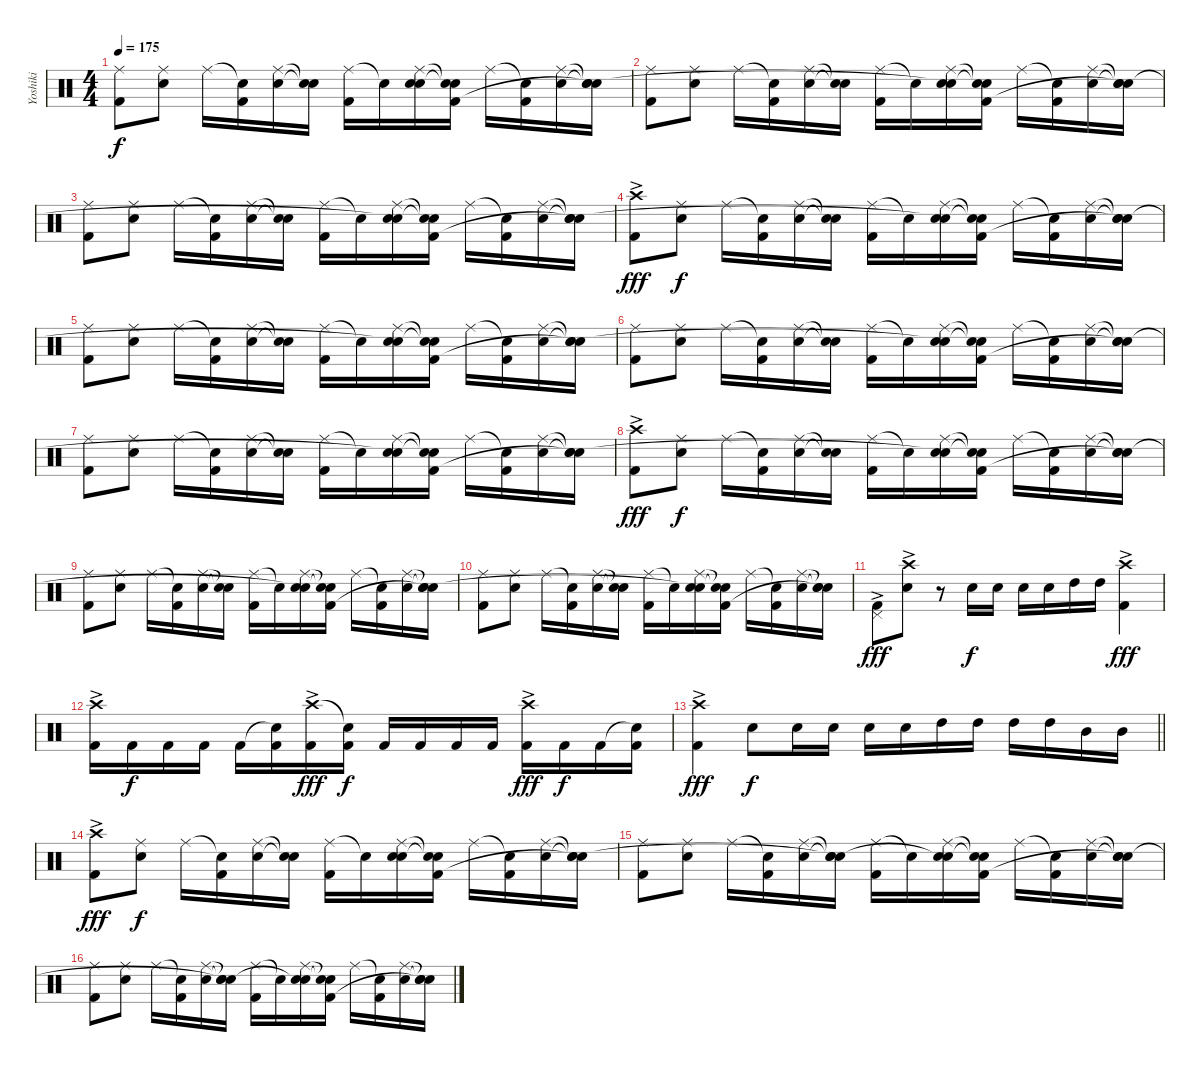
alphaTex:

\track ("Yoshiki" "Yoshiki") {instrument percussion}
\staff {score}
\articulation defaults
\ts (4 4)
\tempo 175
\clef neutral
\ks c
("Ride (middle)" "Kick (hit) 2").8{dy f} ("Ride (middle)" "Snare (hit) 2").8 "Ride (middle)".16 ("Snare (hit)"{t} "Kick (hit) 2").16 ("Ride (middle)" "Snare (hit) 2").16 ("Snare (hit)"{t} "Snare (hit)"{t}).16 ("Ride (middle)" "Kick (hit) 2").16 "Snare (hit)"{t}.16 ("Ride (middle)" "Snare (hit) 2" "Snare (hit)"{t}).16 ("Snare (hit)"{t} "Snare (hit)"{t} "Kick (hit) 2").16 "Ride (middle)".16 ("Snare (hit)"{t} "Kick (hit) 2").16 ("Ride (middle)" "Snare (hit) 2").16 ("Snare (hit)"{t} "Snare (hit)"{t} "Snare (hit)"{t}).16 |
("Ride (middle)" "Kick (hit) 2").8 ("Ride (middle)" "Snare (hit) 2").8 "Ride (middle)".16 ("Snare (hit)"{t} "Kick (hit) 2").16 ("Ride (middle)" "Snare (hit) 2").16 ("Snare (hit)"{t} "Snare (hit)"{t}).16 ("Ride (middle)" "Kick (hit) 2").16 "Snare (hit)"{t}.16 ("Ride (middle)" "Snare (hit) 2" "Snare (hit)"{t}).16 ("Snare (hit)"{t} "Snare (hit)"{t} "Kick (hit) 2").16 "Ride (middle)".16 ("Snare (hit)"{t} "Kick (hit) 2").16 ("Ride (middle)" "Snare (hit) 2").16 ("Snare (hit)"{t} "Snare (hit)"{t} "Snare (hit)"{t}).16 |
("Ride (middle)" "Kick (hit) 2").8 ("Ride (middle)" "Snare (hit) 2").8 "Ride (middle)".16 ("Snare (hit)"{t} "Kick (hit) 2").16 ("Ride (middle)" "Snare (hit) 2").16 ("Snare (hit)"{t} "Snare (hit)"{t}).16 ("Ride (middle)" "Kick (hit) 2").16 "Snare (hit)"{t}.16 ("Ride (middle)" "Snare (hit) 2" "Snare (hit)"{t}).16 ("Snare (hit)"{t} "Snare (hit)"{t} "Kick (hit) 2").16 "Ride (middle)".16 ("Snare (hit)"{t} "Kick (hit) 2").16 ("Ride (middle)" "Snare (hit) 2").16 ("Snare (hit)"{t} "Snare (hit)"{t} "Snare (hit)"{t}).16 |
("Crash high (hit)"{ac} "Kick (hit) 2"{ac}).8{dy fff} ("Ride (middle)" "Snare (hit) 2").8{dy f} "Ride (middle)".16 ("Snare (hit)"{t} "Kick (hit) 2").16 ("Ride (middle)" "Snare (hit) 2").16 ("Snare (hit)"{t} "Snare (hit)"{t}).16 ("Ride (middle)" "Kick (hit) 2").16 "Snare (hit)"{t}.16 ("Ride (middle)" "Snare (hit) 2" "Snare (hit)"{t}).16 ("Snare (hit)"{t} "Snare (hit)"{t} "Kick (hit) 2").16 "Ride (middle)".16 ("Snare (hit)"{t} "Kick (hit) 2").16 ("Ride (middle)" "Snare (hit) 2").16 ("Snare (hit)"{t} "Snare (hit)"{t} "Snare (hit)"{t}).16 |
("Ride (middle)" "Kick (hit) 2").8 ("Ride (middle)" "Snare (hit) 2").8 "Ride (middle)".16 ("Snare (hit)"{t} "Kick (hit) 2").16 ("Ride (middle)" "Snare (hit) 2").16 ("Snare (hit)"{t} "Snare (hit)"{t}).16 ("Ride (middle)" "Kick (hit) 2").16 "Snare (hit)"{t}.16 ("Ride (middle)" "Snare (hit) 2" "Snare (hit)"{t}).16 ("Snare (hit)"{t} "Snare (hit)"{t} "Kick (hit) 2").16 "Ride (middle)".16 ("Snare (hit)"{t} "Kick (hit) 2").16 ("Ride (middle)" "Snare (hit) 2").16 ("Snare (hit)"{t} "Snare (hit)"{t} "Snare (hit)"{t}).16 |
("Ride (middle)" "Kick (hit) 2").8 ("Ride (middle)" "Snare (hit) 2").8 "Ride (middle)".16 ("Snare (hit)"{t} "Kick (hit) 2").16 ("Ride (middle)" "Snare (hit) 2").16 ("Snare (hit)"{t} "Snare (hit)"{t}).16 ("Ride (middle)" "Kick (hit) 2").16 "Snare (hit)"{t}.16 ("Ride (middle)" "Snare (hit) 2" "Snare (hit)"{t}).16 ("Snare (hit)"{t} "Snare (hit)"{t} "Kick (hit) 2").16 "Ride (middle)".16 ("Snare (hit)"{t} "Kick (hit) 2").16 ("Ride (middle)" "Snare (hit) 2").16 ("Snare (hit)"{t} "Snare (hit)"{t} "Snare (hit)"{t}).16 |
("Ride (middle)" "Kick (hit) 2").8 ("Ride (middle)" "Snare (hit) 2").8 "Ride (middle)".16 ("Snare (hit)"{t} "Kick (hit) 2").16 ("Ride (middle)" "Snare (hit) 2").16 ("Snare (hit)"{t} "Snare (hit)"{t}).16 ("Ride (middle)" "Kick (hit) 2").16 "Snare (hit)"{t}.16 ("Ride (middle)" "Snare (hit) 2" "Snare (hit)"{t}).16 ("Snare (hit)"{t} "Snare (hit)"{t} "Kick (hit) 2").16 "Ride (middle)".16 ("Snare (hit)"{t} "Kick (hit) 2").16 ("Ride (middle)" "Snare (hit) 2").16 ("Snare (hit)"{t} "Snare (hit)"{t} "Snare (hit)"{t}).16 |
("Crash high (hit)"{ac} "Kick (hit) 2"{ac}).8{dy fff} ("Ride (middle)" "Snare (hit) 2").8{dy f} "Ride (middle)".16 ("Snare (hit)"{t} "Kick (hit) 2").16 ("Ride (middle)" "Snare (hit) 2").16 ("Snare (hit)"{t} "Snare (hit)"{t}).16 ("Ride (middle)" "Kick (hit) 2").16 "Snare (hit)"{t}.16 ("Ride (middle)" "Snare (hit) 2" "Snare (hit)"{t}).16 ("Snare (hit)"{t} "Snare (hit)"{t} "Kick (hit) 2").16 "Ride (middle)".16 ("Snare (hit)"{t} "Kick (hit) 2").16 ("Ride (middle)" "Snare (hit) 2").16 ("Snare (hit)"{t} "Snare (hit)"{t} "Snare (hit)"{t}).16 |
("Ride (middle)" "Kick (hit) 2").8 ("Ride (middle)" "Snare (hit) 2").8 "Ride (middle)".16 ("Snare (hit)"{t} "Kick (hit) 2").16 ("Ride (middle)" "Snare (hit) 2").16 ("Snare (hit)"{t} "Snare (hit)"{t}).16 ("Ride (middle)" "Kick (hit) 2").16 "Snare (hit)"{t}.16 ("Ride (middle)" "Snare (hit) 2" "Snare (hit)"{t}).16 ("Snare (hit)"{t} "Snare (hit)"{t} "Kick (hit) 2").16 "Ride (middle)".16 ("Snare (hit)"{t} "Kick (hit) 2").16 ("Ride (middle)" "Snare (hit) 2").16 ("Snare (hit)"{t} "Snare (hit)"{t} "Snare (hit)"{t}).16 |
("Ride (middle)" "Kick (hit) 2").8 ("Ride (middle)" "Snare (hit) 2").8 "Ride (middle)".16 ("Snare (hit)"{t} "Kick (hit) 2").16 ("Ride (middle)" "Snare (hit) 2").16 ("Snare (hit)"{t} "Snare (hit)"{t}).16 ("Ride (middle)" "Kick (hit) 2").16 "Snare (hit)"{t}.16 ("Ride (middle)" "Snare (hit) 2" "Snare (hit)"{t}).16 ("Snare (hit)"{t} "Snare (hit)"{t} "Kick (hit) 2").16 "Ride (middle)".16 ("Snare (hit)"{t} "Kick (hit) 2").16 ("Ride (middle)" "Snare (hit) 2").16 ("Snare (hit)"{t} "Snare (hit)"{t} "Snare (hit)"{t}).16 |
("Pedal Hi-Hat (hit)" "Kick (hit) 2"{ac}).8{dy fff} ("Crash high (hit)"{ac} "Snare (hit) 2"{ac}).8 r.8 "Snare (hit) 2".16{dy f} "Snare (hit) 2".16 "Snare (hit) 2".16 "Snare (hit) 2".16 "High Tom (hit)".16 "High Tom (hit)".16 ("Crash high (hit)" "Kick (hit) 2"{ac}).4{dy fff} |
("Crash high (hit)"{ac} "Kick (hit) 2").16 "Kick (hit) 2".16{dy f} "Kick (hit) 2".16 "Kick (hit) 2".16 "Kick (hit) 2".16 ("Snare (hit)"{t} "Kick (hit) 2").16 ("Crash high (hit)"{ac} "Kick (hit) 2").16{dy fff} ("Snare (hit)"{t} "Kick (hit) 2").16{dy f} "Kick (hit) 2".16 "Kick (hit) 2".16 "Kick (hit) 2".16 "Kick (hit) 2".16 ("Crash high (hit)"{ac} "Kick (hit) 2").16{dy fff} "Kick (hit) 2".16{dy f} "Kick (hit) 2".16 ("Snare (hit)"{t} "Kick (hit) 2").16 |
\barLineRight lightlight
("Crash high (hit)"{ac} "Kick (hit) 2").4{dy fff} "Snare (hit) 2".8{dy f} "Snare (hit) 2".16 "Snare (hit) 2".16 "Snare (hit) 2".16 "Snare (hit) 2".16 "High Tom (hit)".16 "High Tom (hit)".16 "High Tom (hit)".16 "High Tom (hit)".16 "Mid Tom (hit)".16 "Mid Tom (hit)".16 |
("Crash high (hit)"{ac} "Kick (hit) 2"{ac}).8{dy fff} ("Ride (middle)" "Snare (hit) 2").8{dy f} "Ride (middle)".16 ("Snare (hit)"{t} "Kick (hit) 2").16 ("Ride (middle)" "Snare (hit) 2").16 ("Snare (hit)"{t} "Snare (hit)"{t}).16 ("Ride (middle)" "Kick (hit) 2").16 "Snare (hit)"{t}.16 ("Ride (middle)" "Snare (hit) 2" "Snare (hit)").16 ("Snare (hit)"{t} "Snare (hit)"{t} "Kick (hit) 2").16 "Ride (middle)".16 ("Snare (hit)"{t} "Kick (hit) 2").16 ("Ride (middle)" "Snare (hit) 2").16 ("Snare (hit)"{t} "Snare (hit)"{t} "Snare (hit)"{t}).16 |
("Ride (middle)" "Kick (hit) 2").8 ("Ride (middle)" "Snare (hit) 2").8 "Ride (middle)".16 ("Snare (hit)"{t} "Kick (hit) 2").16 ("Ride (middle)" "Snare (hit) 2").16 ("Snare (hit)"{t} "Snare (hit)"{t} "Snare (hit)"{t}).16 ("Ride (middle)" "Kick (hit) 2").16 "Snare (hit)"{t}.16 ("Ride (middle)" "Snare (hit) 2" "Snare (hit)"{t}).16 ("Snare (hit)"{t} "Snare (hit)"{t} "Kick (hit) 2").16 "Ride (middle)".16 ("Snare (hit)"{t} "Kick (hit) 2").16 ("Ride (middle)" "Snare (hit) 2").16 ("Snare (hit)"{t} "Snare (hit)"{t} "Snare (hit)"{t}).16 |
("Ride (middle)" "Kick (hit) 2").8 ("Ride (middle)" "Snare (hit) 2").8 "Ride (middle)".16 ("Snare (hit)"{t} "Kick (hit) 2").16 ("Ride (middle)" "Snare (hit) 2").16 ("Snare (hit)"{t} "Snare (hit)"{t} "Snare (hit)"{t}).16 ("Ride (middle)" "Kick (hit) 2").16 "Snare (hit)"{t}.16 ("Ride (middle)" "Snare (hit) 2" "Snare (hit)"{t}).16 ("Snare (hit)"{t} "Snare (hit)"{t} "Kick (hit) 2").16 "Ride (middle)".16 ("Snare (hit)"{t} "Kick (hit) 2").16 ("Ride (middle)" "Snare (hit) 2").16 ("Snare (hit)"{t} "Snare (hit)"{t} "Snare (hit)"{t}).16
